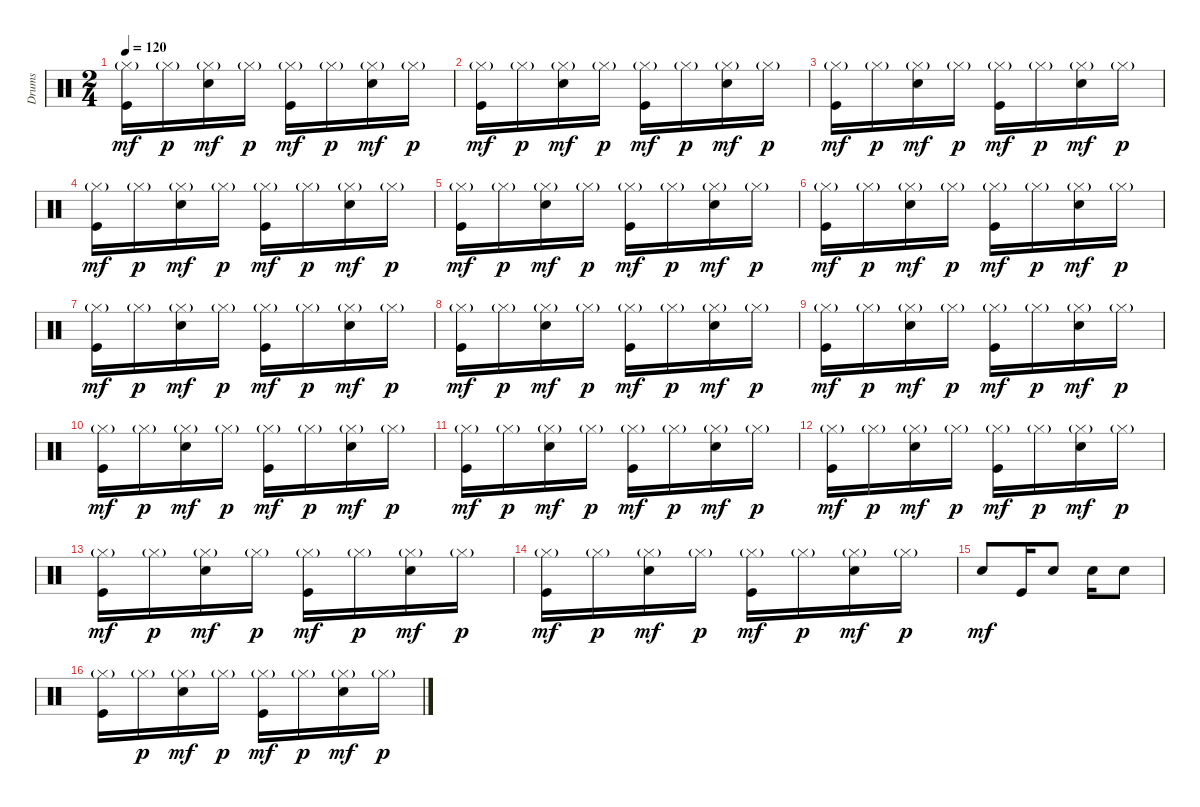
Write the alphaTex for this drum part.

\track ("Drums" "Drums") {instrument percussion}
\staff {score}
\articulation defaults
\ts (2 4)
\tempo 120
\clef neutral
\ks c
("Hi-Hat (closed)"{g} "Kick (hit)").16{dy mf} "Hi-Hat (closed)"{g}.16{dy p} ("Hi-Hat (closed)"{g} "Snare (hit) 2").16{dy mf} "Hi-Hat (closed)"{g}.16{dy p} ("Hi-Hat (closed)"{g} "Kick (hit)").16{dy mf} "Hi-Hat (closed)"{g}.16{dy p} ("Hi-Hat (closed)"{g} "Snare (hit) 2").16{dy mf} "Hi-Hat (closed)"{g}.16{dy p} |
("Hi-Hat (closed)"{g} "Kick (hit)").16{dy mf} "Hi-Hat (closed)"{g}.16{dy p} ("Hi-Hat (closed)"{g} "Snare (hit) 2").16{dy mf} "Hi-Hat (closed)"{g}.16{dy p} ("Hi-Hat (closed)"{g} "Kick (hit)").16{dy mf} "Hi-Hat (closed)"{g}.16{dy p} ("Hi-Hat (closed)"{g} "Snare (hit) 2").16{dy mf} "Hi-Hat (closed)"{g}.16{dy p} |
("Hi-Hat (closed)"{g} "Kick (hit)").16{dy mf} "Hi-Hat (closed)"{g}.16{dy p} ("Hi-Hat (closed)"{g} "Snare (hit) 2").16{dy mf} "Hi-Hat (closed)"{g}.16{dy p} ("Hi-Hat (closed)"{g} "Kick (hit)").16{dy mf} "Hi-Hat (closed)"{g}.16{dy p} ("Hi-Hat (closed)"{g} "Snare (hit) 2").16{dy mf} "Hi-Hat (closed)"{g}.16{dy p} |
("Hi-Hat (closed)"{g} "Kick (hit)").16{dy mf} "Hi-Hat (closed)"{g}.16{dy p} ("Hi-Hat (closed)"{g} "Snare (hit) 2").16{dy mf} "Hi-Hat (closed)"{g}.16{dy p} ("Hi-Hat (closed)"{g} "Kick (hit)").16{dy mf} "Hi-Hat (closed)"{g}.16{dy p} ("Hi-Hat (closed)"{g} "Snare (hit) 2").16{dy mf} "Hi-Hat (closed)"{g}.16{dy p} |
("Hi-Hat (closed)"{g} "Kick (hit)").16{dy mf} "Hi-Hat (closed)"{g}.16{dy p} ("Hi-Hat (closed)"{g} "Snare (hit) 2").16{dy mf} "Hi-Hat (closed)"{g}.16{dy p} ("Hi-Hat (closed)"{g} "Kick (hit)").16{dy mf} "Hi-Hat (closed)"{g}.16{dy p} ("Hi-Hat (closed)"{g} "Snare (hit) 2").16{dy mf} "Hi-Hat (closed)"{g}.16{dy p} |
("Hi-Hat (closed)"{g} "Kick (hit)").16{dy mf} "Hi-Hat (closed)"{g}.16{dy p} ("Hi-Hat (closed)"{g} "Snare (hit) 2").16{dy mf} "Hi-Hat (closed)"{g}.16{dy p} ("Hi-Hat (closed)"{g} "Kick (hit)").16{dy mf} "Hi-Hat (closed)"{g}.16{dy p} ("Hi-Hat (closed)"{g} "Snare (hit) 2").16{dy mf} "Hi-Hat (closed)"{g}.16{dy p} |
("Hi-Hat (closed)"{g} "Kick (hit)").16{dy mf} "Hi-Hat (closed)"{g}.16{dy p} ("Hi-Hat (closed)"{g} "Snare (hit) 2").16{dy mf} "Hi-Hat (closed)"{g}.16{dy p} ("Hi-Hat (closed)"{g} "Kick (hit)").16{dy mf} "Hi-Hat (closed)"{g}.16{dy p} ("Hi-Hat (closed)"{g} "Snare (hit) 2").16{dy mf} "Hi-Hat (closed)"{g}.16{dy p} |
("Hi-Hat (closed)"{g} "Kick (hit)").16{dy mf} "Hi-Hat (closed)"{g}.16{dy p} ("Hi-Hat (closed)"{g} "Snare (hit) 2").16{dy mf} "Hi-Hat (closed)"{g}.16{dy p} ("Hi-Hat (closed)"{g} "Kick (hit)").16{dy mf} "Hi-Hat (closed)"{g}.16{dy p} ("Hi-Hat (closed)"{g} "Snare (hit) 2").16{dy mf} "Hi-Hat (closed)"{g}.16{dy p} |
("Hi-Hat (closed)"{g} "Kick (hit)").16{dy mf} "Hi-Hat (closed)"{g}.16{dy p} ("Hi-Hat (closed)"{g} "Snare (hit) 2").16{dy mf} "Hi-Hat (closed)"{g}.16{dy p} ("Hi-Hat (closed)"{g} "Kick (hit)").16{dy mf} "Hi-Hat (closed)"{g}.16{dy p} ("Hi-Hat (closed)"{g} "Snare (hit) 2").16{dy mf} "Hi-Hat (closed)"{g}.16{dy p} |
("Hi-Hat (closed)"{g} "Kick (hit)").16{dy mf} "Hi-Hat (closed)"{g}.16{dy p} ("Hi-Hat (closed)"{g} "Snare (hit) 2").16{dy mf} "Hi-Hat (closed)"{g}.16{dy p} ("Hi-Hat (closed)"{g} "Kick (hit)").16{dy mf} "Hi-Hat (closed)"{g}.16{dy p} ("Hi-Hat (closed)"{g} "Snare (hit) 2").16{dy mf} "Hi-Hat (closed)"{g}.16{dy p} |
("Hi-Hat (closed)"{g} "Kick (hit)").16{dy mf} "Hi-Hat (closed)"{g}.16{dy p} ("Hi-Hat (closed)"{g} "Snare (hit) 2").16{dy mf} "Hi-Hat (closed)"{g}.16{dy p} ("Hi-Hat (closed)"{g} "Kick (hit)").16{dy mf} "Hi-Hat (closed)"{g}.16{dy p} ("Hi-Hat (closed)"{g} "Snare (hit) 2").16{dy mf} "Hi-Hat (closed)"{g}.16{dy p} |
("Hi-Hat (closed)"{g} "Kick (hit)").16{dy mf} "Hi-Hat (closed)"{g}.16{dy p} ("Hi-Hat (closed)"{g} "Snare (hit) 2").16{dy mf} "Hi-Hat (closed)"{g}.16{dy p} ("Hi-Hat (closed)"{g} "Kick (hit)").16{dy mf} "Hi-Hat (closed)"{g}.16{dy p} ("Hi-Hat (closed)"{g} "Snare (hit) 2").16{dy mf} "Hi-Hat (closed)"{g}.16{dy p} |
("Hi-Hat (closed)"{g} "Kick (hit)").16{dy mf} "Hi-Hat (closed)"{g}.16{dy p} ("Hi-Hat (closed)"{g} "Snare (hit) 2").16{dy mf} "Hi-Hat (closed)"{g}.16{dy p} ("Hi-Hat (closed)"{g} "Kick (hit)").16{dy mf} "Hi-Hat (closed)"{g}.16{dy p} ("Hi-Hat (closed)"{g} "Snare (hit) 2").16{dy mf} "Hi-Hat (closed)"{g}.16{dy p} |
("Hi-Hat (closed)"{g} "Kick (hit)").16{dy mf} "Hi-Hat (closed)"{g}.16{dy p} ("Hi-Hat (closed)"{g} "Snare (hit) 2").16{dy mf} "Hi-Hat (closed)"{g}.16{dy p} ("Hi-Hat (closed)"{g} "Kick (hit)").16{dy mf} "Hi-Hat (closed)"{g}.16{dy p} ("Hi-Hat (closed)"{g} "Snare (hit) 2").16{dy mf} "Hi-Hat (closed)"{g}.16{dy p} |
"Snare (hit) 2".8{dy mf} "Kick (hit)".16 "Snare (hit) 2".8 "Snare (hit) 2".16 "Snare (hit) 2".8 |
("Hi-Hat (closed)"{g} "Kick (hit)").16 "Hi-Hat (closed)"{g}.16{dy p} ("Hi-Hat (closed)"{g} "Snare (hit) 2").16{dy mf} "Hi-Hat (closed)"{g}.16{dy p} ("Hi-Hat (closed)"{g} "Kick (hit)").16{dy mf} "Hi-Hat (closed)"{g}.16{dy p} ("Hi-Hat (closed)"{g} "Snare (hit) 2").16{dy mf} "Hi-Hat (closed)"{g}.16{dy p}
